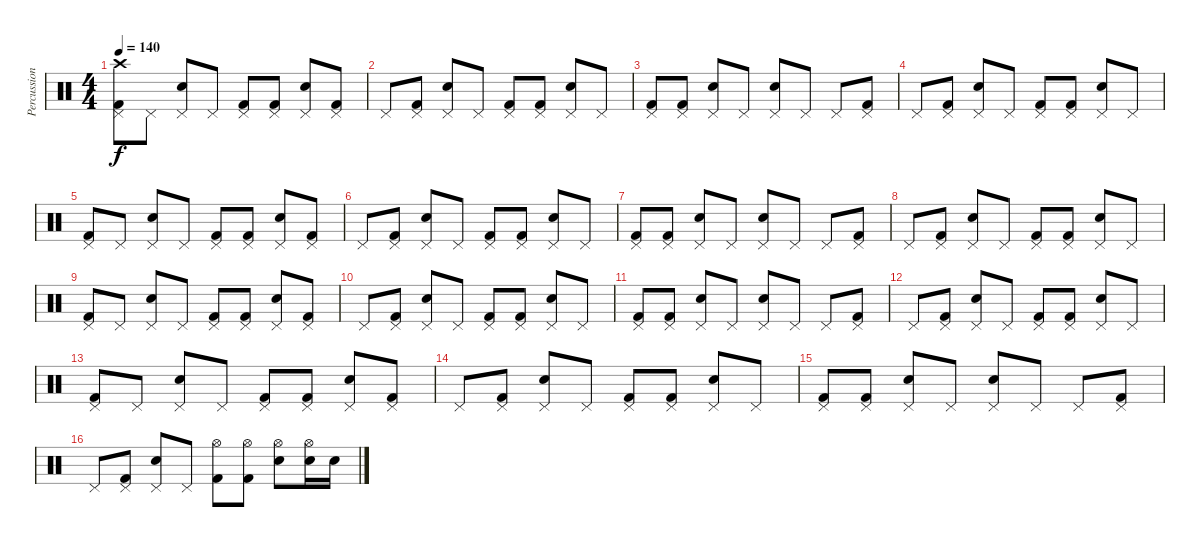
\track ("Percussion" "Percussion") {instrument percussion}
\staff {score}
\articulation defaults
\ts (4 4)
\tempo 140
\clef neutral
\ks c
("Kick (hit) 2" "Pedal Hi-Hat (hit)" "Crash high (hit)").8{dy f} "Pedal Hi-Hat (hit)".8 ("Snare (hit) 2" "Pedal Hi-Hat (hit)").8 "Pedal Hi-Hat (hit)".8 ("Kick (hit) 2" "Pedal Hi-Hat (hit)").8 ("Kick (hit) 2" "Pedal Hi-Hat (hit)").8 ("Snare (hit) 2" "Pedal Hi-Hat (hit)").8 ("Kick (hit) 2" "Pedal Hi-Hat (hit)").8 |
"Pedal Hi-Hat (hit)".8 ("Kick (hit) 2" "Pedal Hi-Hat (hit)").8 ("Snare (hit) 2" "Pedal Hi-Hat (hit)").8 "Pedal Hi-Hat (hit)".8 ("Kick (hit) 2" "Pedal Hi-Hat (hit)").8 ("Kick (hit) 2" "Pedal Hi-Hat (hit)").8 ("Snare (hit) 2" "Pedal Hi-Hat (hit)").8 "Pedal Hi-Hat (hit)".8 |
("Kick (hit) 2" "Pedal Hi-Hat (hit)").8 ("Kick (hit) 2" "Pedal Hi-Hat (hit)").8 ("Snare (hit) 2" "Pedal Hi-Hat (hit)").8 "Pedal Hi-Hat (hit)".8 ("Snare (hit) 2" "Pedal Hi-Hat (hit)").8 "Pedal Hi-Hat (hit)".8 "Pedal Hi-Hat (hit)".8 ("Kick (hit) 2" "Pedal Hi-Hat (hit)").8 |
"Pedal Hi-Hat (hit)".8 ("Kick (hit) 2" "Pedal Hi-Hat (hit)").8 ("Snare (hit) 2" "Pedal Hi-Hat (hit)").8 "Pedal Hi-Hat (hit)".8 ("Kick (hit) 2" "Pedal Hi-Hat (hit)").8 ("Kick (hit) 2" "Pedal Hi-Hat (hit)").8 ("Snare (hit) 2" "Pedal Hi-Hat (hit)").8 "Pedal Hi-Hat (hit)".8 |
("Kick (hit) 2" "Pedal Hi-Hat (hit)").8 "Pedal Hi-Hat (hit)".8 ("Snare (hit) 2" "Pedal Hi-Hat (hit)").8 "Pedal Hi-Hat (hit)".8 ("Kick (hit) 2" "Pedal Hi-Hat (hit)").8 ("Kick (hit) 2" "Pedal Hi-Hat (hit)").8 ("Snare (hit) 2" "Pedal Hi-Hat (hit)").8 ("Kick (hit) 2" "Pedal Hi-Hat (hit)").8 |
"Pedal Hi-Hat (hit)".8 ("Kick (hit) 2" "Pedal Hi-Hat (hit)").8 ("Snare (hit) 2" "Pedal Hi-Hat (hit)").8 "Pedal Hi-Hat (hit)".8 ("Kick (hit) 2" "Pedal Hi-Hat (hit)").8 ("Kick (hit) 2" "Pedal Hi-Hat (hit)").8 ("Snare (hit) 2" "Pedal Hi-Hat (hit)").8 "Pedal Hi-Hat (hit)".8 |
("Kick (hit) 2" "Pedal Hi-Hat (hit)").8 ("Kick (hit) 2" "Pedal Hi-Hat (hit)").8 ("Snare (hit) 2" "Pedal Hi-Hat (hit)").8 "Pedal Hi-Hat (hit)".8 ("Snare (hit) 2" "Pedal Hi-Hat (hit)").8 "Pedal Hi-Hat (hit)".8 "Pedal Hi-Hat (hit)".8 ("Kick (hit) 2" "Pedal Hi-Hat (hit)").8 |
"Pedal Hi-Hat (hit)".8 ("Kick (hit) 2" "Pedal Hi-Hat (hit)").8 ("Snare (hit) 2" "Pedal Hi-Hat (hit)").8 "Pedal Hi-Hat (hit)".8 ("Kick (hit) 2" "Pedal Hi-Hat (hit)").8 ("Kick (hit) 2" "Pedal Hi-Hat (hit)").8 ("Snare (hit) 2" "Pedal Hi-Hat (hit)").8 "Pedal Hi-Hat (hit)".8 |
("Kick (hit) 2" "Pedal Hi-Hat (hit)").8 "Pedal Hi-Hat (hit)".8 ("Snare (hit) 2" "Pedal Hi-Hat (hit)").8 "Pedal Hi-Hat (hit)".8 ("Kick (hit) 2" "Pedal Hi-Hat (hit)").8 ("Kick (hit) 2" "Pedal Hi-Hat (hit)").8 ("Snare (hit) 2" "Pedal Hi-Hat (hit)").8 ("Kick (hit) 2" "Pedal Hi-Hat (hit)").8 |
"Pedal Hi-Hat (hit)".8 ("Kick (hit) 2" "Pedal Hi-Hat (hit)").8 ("Snare (hit) 2" "Pedal Hi-Hat (hit)").8 "Pedal Hi-Hat (hit)".8 ("Kick (hit) 2" "Pedal Hi-Hat (hit)").8 ("Kick (hit) 2" "Pedal Hi-Hat (hit)").8 ("Snare (hit) 2" "Pedal Hi-Hat (hit)").8 "Pedal Hi-Hat (hit)".8 |
("Kick (hit) 2" "Pedal Hi-Hat (hit)").8 ("Kick (hit) 2" "Pedal Hi-Hat (hit)").8 ("Snare (hit) 2" "Pedal Hi-Hat (hit)").8 "Pedal Hi-Hat (hit)".8 ("Snare (hit) 2" "Pedal Hi-Hat (hit)").8 "Pedal Hi-Hat (hit)".8 "Pedal Hi-Hat (hit)".8 ("Kick (hit) 2" "Pedal Hi-Hat (hit)").8 |
"Pedal Hi-Hat (hit)".8 ("Kick (hit) 2" "Pedal Hi-Hat (hit)").8 ("Snare (hit) 2" "Pedal Hi-Hat (hit)").8 "Pedal Hi-Hat (hit)".8 ("Kick (hit) 2" "Pedal Hi-Hat (hit)").8 ("Kick (hit) 2" "Pedal Hi-Hat (hit)").8 ("Snare (hit) 2" "Pedal Hi-Hat (hit)").8 "Pedal Hi-Hat (hit)".8 |
("Kick (hit) 2" "Pedal Hi-Hat (hit)").8 "Pedal Hi-Hat (hit)".8 ("Snare (hit) 2" "Pedal Hi-Hat (hit)").8 "Pedal Hi-Hat (hit)".8 ("Kick (hit) 2" "Pedal Hi-Hat (hit)").8 ("Kick (hit) 2" "Pedal Hi-Hat (hit)").8 ("Snare (hit) 2" "Pedal Hi-Hat (hit)").8 ("Kick (hit) 2" "Pedal Hi-Hat (hit)").8 |
"Pedal Hi-Hat (hit)".8 ("Kick (hit) 2" "Pedal Hi-Hat (hit)").8 ("Snare (hit) 2" "Pedal Hi-Hat (hit)").8 "Pedal Hi-Hat (hit)".8 ("Kick (hit) 2" "Pedal Hi-Hat (hit)").8 ("Kick (hit) 2" "Pedal Hi-Hat (hit)").8 ("Snare (hit) 2" "Pedal Hi-Hat (hit)").8 "Pedal Hi-Hat (hit)".8 |
("Kick (hit) 2" "Pedal Hi-Hat (hit)").8 ("Kick (hit) 2" "Pedal Hi-Hat (hit)").8 ("Snare (hit) 2" "Pedal Hi-Hat (hit)").8 "Pedal Hi-Hat (hit)".8 ("Snare (hit) 2" "Pedal Hi-Hat (hit)").8 "Pedal Hi-Hat (hit)".8 "Pedal Hi-Hat (hit)".8 ("Kick (hit) 2" "Pedal Hi-Hat (hit)").8 |
"Pedal Hi-Hat (hit)".8 ("Kick (hit) 2" "Pedal Hi-Hat (hit)").8 ("Snare (hit) 2" "Pedal Hi-Hat (hit)").8 "Pedal Hi-Hat (hit)".8 ("Kick (hit) 2" "Hi-Hat (open)").8 ("Kick (hit) 2" "Hi-Hat (open)").8 ("Snare (hit) 2" "Hi-Hat (open)").8 ("Snare (hit) 2" "Hi-Hat (open)").16 "Snare (hit) 2".16
